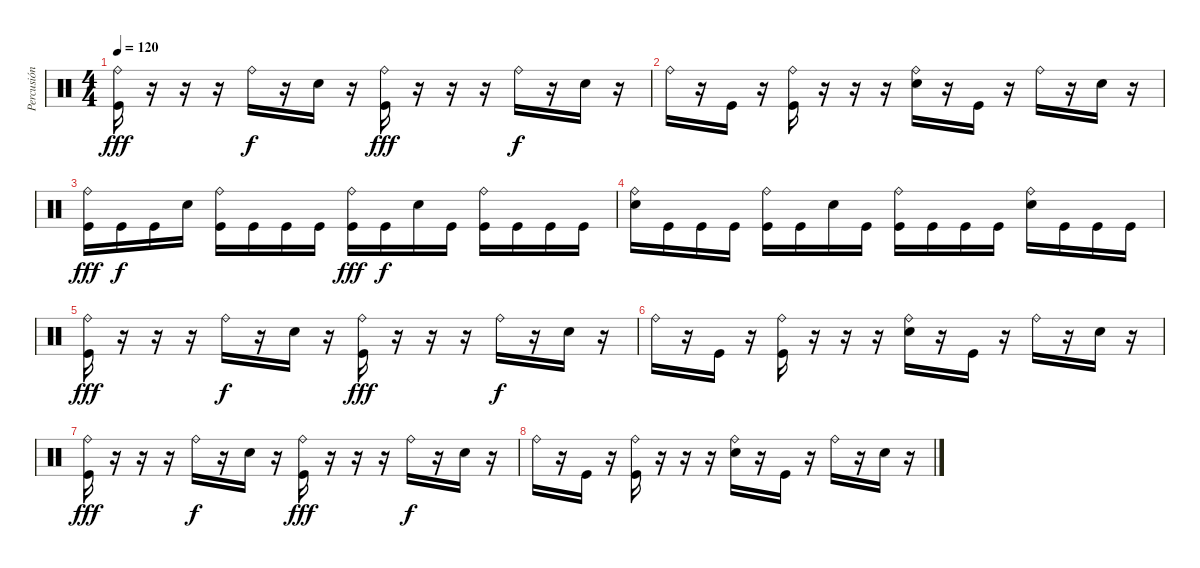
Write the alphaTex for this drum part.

\track ("Percusión" "Percusión") {instrument percussion}
\staff {score}
\articulation defaults
\ts (4 4)
\tempo 120
\clef neutral
\ks c
("Ride (bell)" "Kick (hit)").16{dy fff} r.16 r.16 r.16 "Ride (bell)".16{dy f} r.16 "Snare (hit) 2".16 r.16 ("Ride (bell)" "Kick (hit)").16{dy fff} r.16 r.16 r.16 "Ride (bell)".16{dy f} r.16 "Snare (hit) 2".16 r.16 |
"Ride (bell)".16 r.16 "Kick (hit)".16 r.16 ("Ride (bell)" "Kick (hit)").16 r.16 r.16 r.16 ("Ride (bell)" "Snare (hit) 2").16 r.16 "Kick (hit)".16 r.16 "Ride (bell)".16 r.16 "Snare (hit) 2".16 r.16 |
("Ride (bell)" "Kick (hit)").16{dy fff} "Kick (hit)".16{dy f} "Kick (hit)".16 "Snare (hit) 2".16 ("Ride (bell)" "Kick (hit)").16 "Kick (hit)".16 "Kick (hit)".16 "Kick (hit)".16 ("Ride (bell)" "Kick (hit)").16{dy fff} "Kick (hit)".16{dy f} "Snare (hit) 2".16 "Kick (hit)".16 ("Ride (bell)" "Kick (hit)").16 "Kick (hit)".16 "Kick (hit)".16 "Kick (hit)".16 |
("Ride (bell)" "Snare (hit) 2").16 "Kick (hit)".16 "Kick (hit)".16 "Kick (hit)".16 ("Ride (bell)" "Kick (hit)").16 "Kick (hit)".16 "Snare (hit) 2".16 "Kick (hit)".16 ("Ride (bell)" "Kick (hit)").16 "Kick (hit)".16 "Kick (hit)".16 "Kick (hit)".16 ("Ride (bell)" "Snare (hit) 2").16 "Kick (hit)".16 "Kick (hit)".16 "Kick (hit)".16 |
("Ride (bell)" "Kick (hit)").16{dy fff} r.16 r.16 r.16 "Ride (bell)".16{dy f} r.16 "Snare (hit) 2".16 r.16 ("Ride (bell)" "Kick (hit)").16{dy fff} r.16 r.16 r.16 "Ride (bell)".16{dy f} r.16 "Snare (hit) 2".16 r.16 |
"Ride (bell)".16 r.16 "Kick (hit)".16 r.16 ("Ride (bell)" "Kick (hit)").16 r.16 r.16 r.16 ("Ride (bell)" "Snare (hit) 2").16 r.16 "Kick (hit)".16 r.16 "Ride (bell)".16 r.16 "Snare (hit) 2".16 r.16 |
("Ride (bell)" "Kick (hit)").16{dy fff} r.16 r.16 r.16 "Ride (bell)".16{dy f} r.16 "Snare (hit) 2".16 r.16 ("Ride (bell)" "Kick (hit)").16{dy fff} r.16 r.16 r.16 "Ride (bell)".16{dy f} r.16 "Snare (hit) 2".16 r.16 |
"Ride (bell)".16 r.16 "Kick (hit)".16 r.16 ("Ride (bell)" "Kick (hit)").16 r.16 r.16 r.16 ("Ride (bell)" "Snare (hit) 2").16 r.16 "Kick (hit)".16 r.16 "Ride (bell)".16 r.16 "Snare (hit) 2".16 r.16
